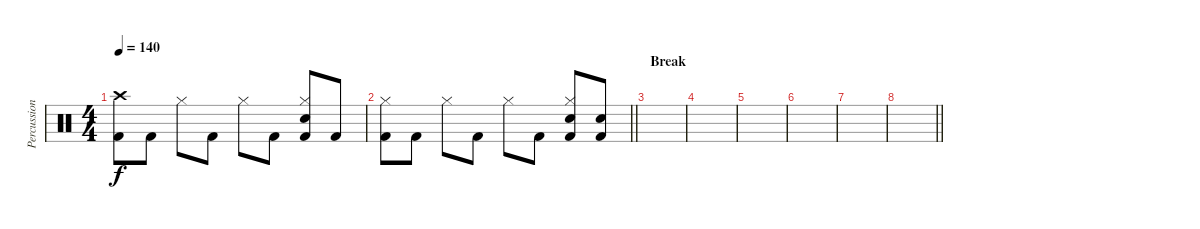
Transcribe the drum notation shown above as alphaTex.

\track ("Percussions" "Percussion") {instrument percussion}
\staff {score}
\articulation defaults
\ts (4 4)
\tempo 140
\clef neutral
\ks c
("Crash high (hit)" "Kick (hit) 2").8{dy f} "Kick (hit) 2".8 "Hi-Hat (closed)".8 "Kick (hit) 2".8 "Hi-Hat (closed)".8 "Kick (hit) 2".8 ("Hi-Hat (closed)" "Electric Snare (hit)" "Kick (hit) 2").8 "Kick (hit) 2".8 |
\barLineRight lightlight
("Hi-Hat (closed)" "Kick (hit) 2").8 "Kick (hit) 2".8 "Hi-Hat (closed)".8 "Kick (hit) 2".8 "Hi-Hat (closed)".8 "Kick (hit) 2".8 ("Hi-Hat (closed)" "Electric Snare (hit)" "Kick (hit) 2").8 ("Electric Snare (hit)" "Kick (hit) 2").8 |
\section ("" "Break")
|
|
|
|
|
\barLineRight lightlight
